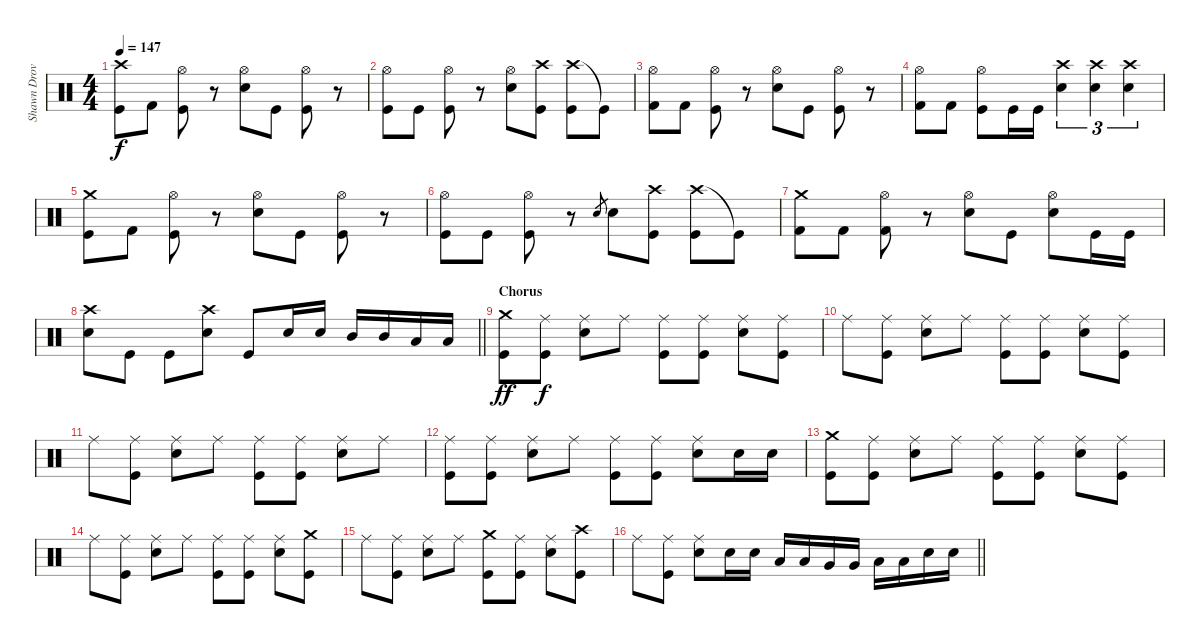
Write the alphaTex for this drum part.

\track ("Shawn Drover" "Shawn Drov") {instrument percussion}
\staff {score}
\articulation defaults
\ts (4 4)
\tempo 147
\clef neutral
\ks c
("Crash high (hit)" "Kick (hit)").8{dy f} "Kick (hit) 2".8 ("Hi-Hat (open)" "Kick (hit)").8 r.8 ("Hi-Hat (open)" "Snare (hit) 2").8 "Kick (hit)".8 ("Hi-Hat (open)" "Kick (hit)").8 r.8 |
("Hi-Hat (open)" "Kick (hit)").8 "Kick (hit)".8 ("Hi-Hat (open)" "Kick (hit)").8 r.8 ("Hi-Hat (open)" "Snare (hit) 2").8 ("Crash high (hit)" "Kick (hit)").8 ("Crash high (hit)" "Kick (hit)").8 "Kick (hit)"{t}.8 |
("Hi-Hat (open)" "Kick (hit) 2").8 "Kick (hit) 2".8 ("Hi-Hat (open)" "Kick (hit)").8 r.8 ("Hi-Hat (open)" "Snare (hit) 2").8 "Kick (hit)".8 ("Hi-Hat (open)" "Kick (hit)").8 r.8 |
("Hi-Hat (open)" "Kick (hit) 2").8 "Kick (hit) 2".8 ("Hi-Hat (open)" "Kick (hit)").8 "Kick (hit)".16 "Kick (hit)".16 ("Crash high (hit)" "Snare (hit) 2").4{tu (3 2)} ("Crash high (hit)" "Snare (hit) 2").4{tu (3 2)} ("Crash high (hit)" "Snare (hit) 2").4{tu (3 2)} |
("Crash medium (hit)" "Kick (hit)").8 "Kick (hit) 2".8 ("Hi-Hat (open)" "Kick (hit)").8 r.8 ("Hi-Hat (open)" "Snare (hit) 2").8 "Kick (hit)".8 ("Hi-Hat (open)" "Kick (hit)").8 r.8 |
("Hi-Hat (open)" "Kick (hit)").8 "Kick (hit)".8 ("Hi-Hat (open)" "Kick (hit)").8 r.8 "Snare (hit) 2".8{gr} "Snare (hit) 2".8 ("Crash high (hit)" "Kick (hit)").8 ("Crash high (hit)" "Kick (hit)").8 "Kick (hit)"{t}.8 |
("Crash medium (hit)" "Kick (hit) 2").8 "Kick (hit) 2".8 ("Hi-Hat (open)" "Kick (hit) 2").8 r.8 ("Hi-Hat (open)" "Snare (hit) 2").8 "Kick (hit)".8 ("Hi-Hat (open)" "Snare (hit) 2").8 "Kick (hit)".16 "Kick (hit)".16 |
\barLineRight lightlight
("Crash high (hit)" "Snare (hit) 2").8 "Kick (hit)".8 "Kick (hit)".8 ("Crash high (hit)" "Snare (hit) 2").8 "Kick (hit)".8 "Snare (hit) 2".16 "Snare (hit) 2".16 "Mid Tom (hit)".16 "Mid Tom (hit)".16 "Low Tom (hit)".16 "Low Tom (hit)".16 |
\section ("" "Chorus")
("Crash medium (hit)" "Kick (hit)").8{dy ff} ("Ride (middle)" "Kick (hit)").8{dy f} ("Ride (middle)" "Snare (hit) 2").8 "Ride (middle)".8 ("Ride (middle)" "Kick (hit)").8 ("Ride (middle)" "Kick (hit)").8 ("Ride (middle)" "Snare (hit) 2").8 ("Ride (middle)" "Kick (hit)").8 |
"Ride (middle)".8 ("Ride (middle)" "Kick (hit)").8 ("Ride (middle)" "Snare (hit) 2").8 "Ride (middle)".8 ("Ride (middle)" "Kick (hit)").8 ("Ride (middle)" "Kick (hit)").8 ("Ride (middle)" "Snare (hit) 2").8 ("Ride (middle)" "Kick (hit)").8 |
"Ride (middle)".8 ("Ride (middle)" "Kick (hit)").8 ("Ride (middle)" "Snare (hit) 2").8 "Ride (middle)".8 ("Ride (middle)" "Kick (hit)").8 ("Ride (middle)" "Kick (hit)").8 ("Ride (middle)" "Snare (hit) 2").8 "Ride (middle)".8 |
("Ride (middle)" "Kick (hit)").8 ("Ride (middle)" "Kick (hit)").8 ("Ride (middle)" "Snare (hit) 2").8 "Ride (middle)".8 ("Ride (middle)" "Kick (hit)").8 ("Ride (middle)" "Kick (hit)").8 ("Ride (middle)" "Snare (hit) 2").8 "Snare (hit) 2".16 "Snare (hit) 2".16 |
("Crash medium (hit)" "Kick (hit)").8 ("Ride (middle)" "Kick (hit)").8 ("Ride (middle)" "Snare (hit) 2").8 "Ride (middle)".8 ("Ride (middle)" "Kick (hit)").8 ("Ride (middle)" "Kick (hit)").8 ("Ride (middle)" "Snare (hit) 2").8 ("Ride (middle)" "Kick (hit)").8 |
"Ride (middle)".8 ("Ride (middle)" "Kick (hit)").8 ("Ride (middle)" "Snare (hit) 2").8 "Ride (middle)".8 ("Ride (middle)" "Kick (hit)").8 ("Ride (middle)" "Kick (hit)").8 ("Ride (middle)" "Snare (hit) 2").8 ("Crash medium (hit)" "Kick (hit)").8 |
"Ride (middle)".8 ("Ride (middle)" "Kick (hit)").8 ("Ride (middle)" "Snare (hit) 2").8 "Ride (middle)".8 ("Crash medium (hit)" "Kick (hit)").8 ("Ride (middle)" "Kick (hit)").8 ("Ride (middle)" "Snare (hit) 2").8 ("Crash high (hit)" "Kick (hit)").8 |
\barLineRight lightlight "Ride (middle)".8
("Ride (middle)" "Kick (hit)").8 ("Ride (middle)" "Snare (hit) 2").8 "Snare (hit) 2".16 "Snare (hit) 2".16 "Low Tom (hit)".16 "Low Tom (hit)".16 "Very Low Tom (hit)".16 "Very Low Tom (hit)".16 "Low Floor Tom (hit)".16 "Low Floor Tom (hit)".16 "Snare (hit) 2".16 "Snare (hit) 2".16
